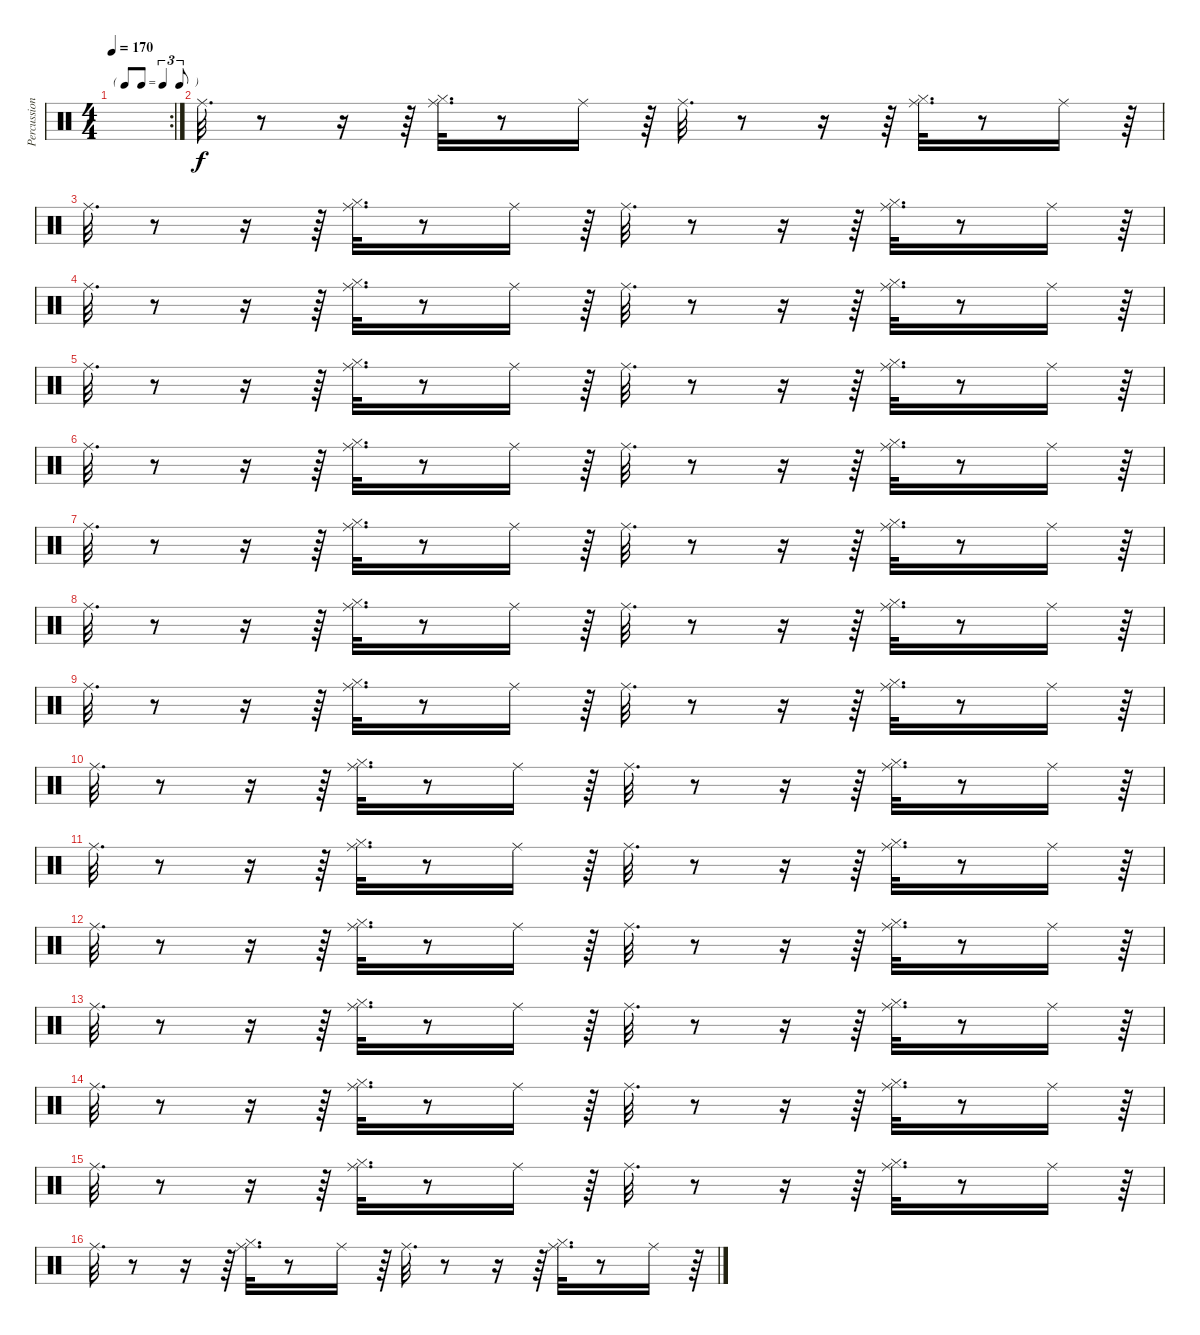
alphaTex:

\track ("Percussions" "Percussion") {instrument percussion}
\staff {score}
\articulation defaults
\rc 2
\ts (4 4)
\tf triplet8th
\tempo 170
\clef neutral
\ks c
|
"Ride (middle)".32{d} r.8 r.16 r.64 ("Hi-Hat (closed)" "Ride (middle)").32{d} r.8 "Ride (middle)".16 r.64 "Ride (middle)".32{d} r.8 r.16 r.64 ("Hi-Hat (closed)" "Ride (middle)").32{d} r.8 "Ride (middle)".16 r.64 |
"Ride (middle)".32{d} r.8 r.16 r.64 ("Hi-Hat (closed)" "Ride (middle)").32{d} r.8 "Ride (middle)".16 r.64 "Ride (middle)".32{d} r.8 r.16 r.64 ("Hi-Hat (closed)" "Ride (middle)").32{d} r.8 "Ride (middle)".16 r.64 |
"Ride (middle)".32{d} r.8 r.16 r.64 ("Hi-Hat (closed)" "Ride (middle)").32{d} r.8 "Ride (middle)".16 r.64 "Ride (middle)".32{d} r.8 r.16 r.64 ("Hi-Hat (closed)" "Ride (middle)").32{d} r.8 "Ride (middle)".16 r.64 |
"Ride (middle)".32{d} r.8 r.16 r.64 ("Hi-Hat (closed)" "Ride (middle)").32{d} r.8 "Ride (middle)".16 r.64 "Ride (middle)".32{d} r.8 r.16 r.64 ("Hi-Hat (closed)" "Ride (middle)").32{d} r.8 "Ride (middle)".16 r.64 |
"Ride (middle)".32{d} r.8 r.16 r.64 ("Hi-Hat (closed)" "Ride (middle)").32{d} r.8 "Ride (middle)".16 r.64 "Ride (middle)".32{d} r.8 r.16 r.64 ("Hi-Hat (closed)" "Ride (middle)").32{d} r.8 "Ride (middle)".16 r.64 |
"Ride (middle)".32{d} r.8 r.16 r.64 ("Hi-Hat (closed)" "Ride (middle)").32{d} r.8 "Ride (middle)".16 r.64 "Ride (middle)".32{d} r.8 r.16 r.64 ("Hi-Hat (closed)" "Ride (middle)").32{d} r.8 "Ride (middle)".16 r.64 |
"Ride (middle)".32{d} r.8 r.16 r.64 ("Hi-Hat (closed)" "Ride (middle)").32{d} r.8 "Ride (middle)".16 r.64 "Ride (middle)".32{d} r.8 r.16 r.64 ("Hi-Hat (closed)" "Ride (middle)").32{d} r.8 "Ride (middle)".16 r.64 |
"Ride (middle)".32{d} r.8 r.16 r.64 ("Hi-Hat (closed)" "Ride (middle)").32{d} r.8 "Ride (middle)".16 r.64 "Ride (middle)".32{d} r.8 r.16 r.64 ("Hi-Hat (closed)" "Ride (middle)").32{d} r.8 "Ride (middle)".16 r.64 |
"Ride (middle)".32{d} r.8 r.16 r.64 ("Hi-Hat (closed)" "Ride (middle)").32{d} r.8 "Ride (middle)".16 r.64 "Ride (middle)".32{d} r.8 r.16 r.64 ("Hi-Hat (closed)" "Ride (middle)").32{d} r.8 "Ride (middle)".16 r.64 |
"Ride (middle)".32{d} r.8 r.16 r.64 ("Hi-Hat (closed)" "Ride (middle)").32{d} r.8 "Ride (middle)".16 r.64 "Ride (middle)".32{d} r.8 r.16 r.64 ("Hi-Hat (closed)" "Ride (middle)").32{d} r.8 "Ride (middle)".16 r.64 |
"Ride (middle)".32{d} r.8 r.16 r.64 ("Hi-Hat (closed)" "Ride (middle)").32{d} r.8 "Ride (middle)".16 r.64 "Ride (middle)".32{d} r.8 r.16 r.64 ("Hi-Hat (closed)" "Ride (middle)").32{d} r.8 "Ride (middle)".16 r.64 |
"Ride (middle)".32{d} r.8 r.16 r.64 ("Hi-Hat (closed)" "Ride (middle)").32{d} r.8 "Ride (middle)".16 r.64 "Ride (middle)".32{d} r.8 r.16 r.64 ("Hi-Hat (closed)" "Ride (middle)").32{d} r.8 "Ride (middle)".16 r.64 |
"Ride (middle)".32{d} r.8 r.16 r.64 ("Hi-Hat (closed)" "Ride (middle)").32{d} r.8 "Ride (middle)".16 r.64 "Ride (middle)".32{d} r.8 r.16 r.64 ("Hi-Hat (closed)" "Ride (middle)").32{d} r.8 "Ride (middle)".16 r.64 |
"Ride (middle)".32{d} r.8 r.16 r.64 ("Hi-Hat (closed)" "Ride (middle)").32{d} r.8 "Ride (middle)".16 r.64 "Ride (middle)".32{d} r.8 r.16 r.64 ("Hi-Hat (closed)" "Ride (middle)").32{d} r.8 "Ride (middle)".16 r.64 |
"Ride (middle)".32{d} r.8 r.16 r.64 ("Hi-Hat (closed)" "Ride (middle)").32{d} r.8 "Ride (middle)".16 r.64 "Ride (middle)".32{d} r.8 r.16 r.64 ("Hi-Hat (closed)" "Ride (middle)").32{d} r.8 "Ride (middle)".16 r.64
